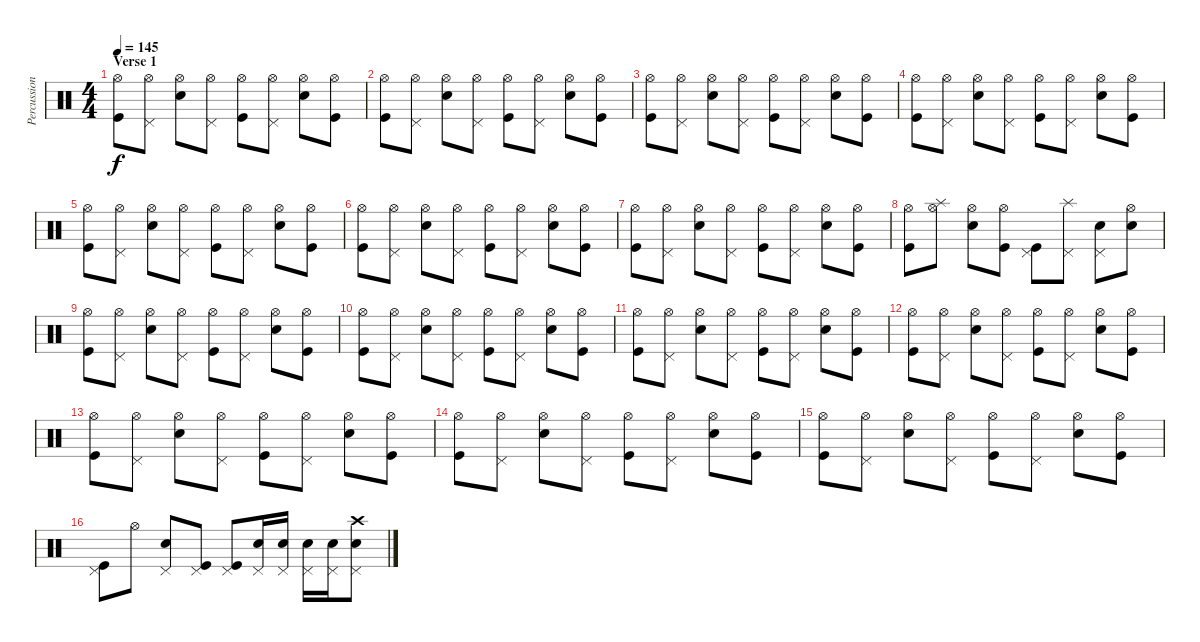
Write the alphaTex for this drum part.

\track ("Percussion" "Percussion") {instrument percussion}
\staff {score}
\articulation defaults
\ts (4 4)
\section ("" "Verse 1")
\tempo 145
\clef neutral
\ks c
("Hi-Hat (open)" "Kick (hit)").8{dy f} ("Hi-Hat (open)" "Pedal Hi-Hat (hit)").8 ("Hi-Hat (open)" "Snare (hit) 2").8 ("Hi-Hat (open)" "Pedal Hi-Hat (hit)").8 ("Hi-Hat (open)" "Kick (hit)").8 ("Hi-Hat (open)" "Pedal Hi-Hat (hit)").8 ("Hi-Hat (open)" "Snare (hit) 2").8 ("Hi-Hat (open)" "Kick (hit)").8 |
("Hi-Hat (open)" "Kick (hit)").8 ("Hi-Hat (open)" "Pedal Hi-Hat (hit)").8 ("Hi-Hat (open)" "Snare (hit) 2").8 ("Hi-Hat (open)" "Pedal Hi-Hat (hit)").8 ("Hi-Hat (open)" "Kick (hit)").8 ("Hi-Hat (open)" "Pedal Hi-Hat (hit)").8 ("Hi-Hat (open)" "Snare (hit) 2").8 ("Hi-Hat (open)" "Kick (hit)").8 |
("Hi-Hat (open)" "Kick (hit)").8 ("Hi-Hat (open)" "Pedal Hi-Hat (hit)").8 ("Hi-Hat (open)" "Snare (hit) 2").8 ("Hi-Hat (open)" "Pedal Hi-Hat (hit)").8 ("Hi-Hat (open)" "Kick (hit)").8 ("Hi-Hat (open)" "Pedal Hi-Hat (hit)").8 ("Hi-Hat (open)" "Snare (hit) 2").8 ("Hi-Hat (open)" "Kick (hit)").8 |
("Hi-Hat (open)" "Kick (hit)").8 ("Hi-Hat (open)" "Pedal Hi-Hat (hit)").8 ("Hi-Hat (open)" "Snare (hit) 2").8 ("Hi-Hat (open)" "Pedal Hi-Hat (hit)").8 ("Hi-Hat (open)" "Kick (hit)").8 ("Hi-Hat (open)" "Pedal Hi-Hat (hit)").8 ("Hi-Hat (open)" "Snare (hit) 2").8 ("Hi-Hat (open)" "Kick (hit)").8 |
("Hi-Hat (open)" "Kick (hit)").8 ("Hi-Hat (open)" "Pedal Hi-Hat (hit)").8 ("Hi-Hat (open)" "Snare (hit) 2").8 ("Hi-Hat (open)" "Pedal Hi-Hat (hit)").8 ("Hi-Hat (open)" "Kick (hit)").8 ("Hi-Hat (open)" "Pedal Hi-Hat (hit)").8 ("Hi-Hat (open)" "Snare (hit) 2").8 ("Hi-Hat (open)" "Kick (hit)").8 |
("Hi-Hat (open)" "Kick (hit)").8 ("Hi-Hat (open)" "Pedal Hi-Hat (hit)").8 ("Hi-Hat (open)" "Snare (hit) 2").8 ("Hi-Hat (open)" "Pedal Hi-Hat (hit)").8 ("Hi-Hat (open)" "Kick (hit)").8 ("Hi-Hat (open)" "Pedal Hi-Hat (hit)").8 ("Hi-Hat (open)" "Snare (hit) 2").8 ("Hi-Hat (open)" "Kick (hit)").8 |
("Hi-Hat (open)" "Kick (hit)").8 ("Hi-Hat (open)" "Pedal Hi-Hat (hit)").8 ("Hi-Hat (open)" "Snare (hit) 2").8 ("Hi-Hat (open)" "Pedal Hi-Hat (hit)").8 ("Hi-Hat (open)" "Kick (hit)").8 ("Hi-Hat (open)" "Pedal Hi-Hat (hit)").8 ("Hi-Hat (open)" "Snare (hit) 2").8 ("Hi-Hat (open)" "Kick (hit)").8 |
("Hi-Hat (open)" "Kick (hit)").8 ("Hi-Hat (open)" "Splash (hit)").8 ("Hi-Hat (open)" "Snare (hit) 2").8 ("Hi-Hat (open)" "Kick (hit)").8 ("Pedal Hi-Hat (hit)" "Kick (hit)").8 ("Pedal Hi-Hat (hit)" "Splash (hit)").8 ("Pedal Hi-Hat (hit)" "Snare (hit) 2").8 ("Hi-Hat (open)" "Snare (hit) 2").8 |
("Hi-Hat (open)" "Kick (hit)").8 ("Hi-Hat (open)" "Pedal Hi-Hat (hit)").8 ("Hi-Hat (open)" "Snare (hit) 2").8 ("Hi-Hat (open)" "Pedal Hi-Hat (hit)").8 ("Hi-Hat (open)" "Kick (hit)").8 ("Hi-Hat (open)" "Pedal Hi-Hat (hit)").8 ("Hi-Hat (open)" "Snare (hit) 2").8 ("Hi-Hat (open)" "Kick (hit)").8 |
("Hi-Hat (open)" "Kick (hit)").8 ("Hi-Hat (open)" "Pedal Hi-Hat (hit)").8 ("Hi-Hat (open)" "Snare (hit) 2").8 ("Hi-Hat (open)" "Pedal Hi-Hat (hit)").8 ("Hi-Hat (open)" "Kick (hit)").8 ("Hi-Hat (open)" "Pedal Hi-Hat (hit)").8 ("Hi-Hat (open)" "Snare (hit) 2").8 ("Hi-Hat (open)" "Kick (hit)").8 |
("Hi-Hat (open)" "Kick (hit)").8 ("Hi-Hat (open)" "Pedal Hi-Hat (hit)").8 ("Hi-Hat (open)" "Snare (hit) 2").8 ("Hi-Hat (open)" "Pedal Hi-Hat (hit)").8 ("Hi-Hat (open)" "Kick (hit)").8 ("Hi-Hat (open)" "Pedal Hi-Hat (hit)").8 ("Hi-Hat (open)" "Snare (hit) 2").8 ("Hi-Hat (open)" "Kick (hit)").8 |
("Hi-Hat (open)" "Kick (hit)").8 ("Hi-Hat (open)" "Pedal Hi-Hat (hit)").8 ("Hi-Hat (open)" "Snare (hit) 2").8 ("Hi-Hat (open)" "Pedal Hi-Hat (hit)").8 ("Hi-Hat (open)" "Kick (hit)").8 ("Hi-Hat (open)" "Pedal Hi-Hat (hit)").8 ("Hi-Hat (open)" "Snare (hit) 2").8 ("Hi-Hat (open)" "Kick (hit)").8 |
("Hi-Hat (open)" "Kick (hit)").8 ("Hi-Hat (open)" "Pedal Hi-Hat (hit)").8 ("Hi-Hat (open)" "Snare (hit) 2").8 ("Hi-Hat (open)" "Pedal Hi-Hat (hit)").8 ("Hi-Hat (open)" "Kick (hit)").8 ("Hi-Hat (open)" "Pedal Hi-Hat (hit)").8 ("Hi-Hat (open)" "Snare (hit) 2").8 ("Hi-Hat (open)" "Kick (hit)").8 |
("Hi-Hat (open)" "Kick (hit)").8 ("Hi-Hat (open)" "Pedal Hi-Hat (hit)").8 ("Hi-Hat (open)" "Snare (hit) 2").8 ("Hi-Hat (open)" "Pedal Hi-Hat (hit)").8 ("Hi-Hat (open)" "Kick (hit)").8 ("Hi-Hat (open)" "Pedal Hi-Hat (hit)").8 ("Hi-Hat (open)" "Snare (hit) 2").8 ("Hi-Hat (open)" "Kick (hit)").8 |
("Hi-Hat (open)" "Kick (hit)").8 ("Hi-Hat (open)" "Pedal Hi-Hat (hit)").8 ("Hi-Hat (open)" "Snare (hit) 2").8 ("Hi-Hat (open)" "Pedal Hi-Hat (hit)").8 ("Hi-Hat (open)" "Kick (hit)").8 ("Hi-Hat (open)" "Pedal Hi-Hat (hit)").8 ("Hi-Hat (open)" "Snare (hit) 2").8 ("Hi-Hat (open)" "Kick (hit)").8 |
("Pedal Hi-Hat (hit)" "Kick (hit)").8 "Hi-Hat (open)".8 ("Pedal Hi-Hat (hit)" "Snare (hit) 2").8 ("Pedal Hi-Hat (hit)" "Kick (hit)").8 ("Pedal Hi-Hat (hit)" "Kick (hit)").8 ("Pedal Hi-Hat (hit)" "Snare (hit) 2").16 ("Pedal Hi-Hat (hit)" "Snare (hit) 2").16 ("Pedal Hi-Hat (hit)" "Snare (hit) 2").16 ("Pedal Hi-Hat (hit)" "Snare (hit) 2").16 ("Pedal Hi-Hat (hit)" "Snare (hit) 2" "Crash high (hit)").8
